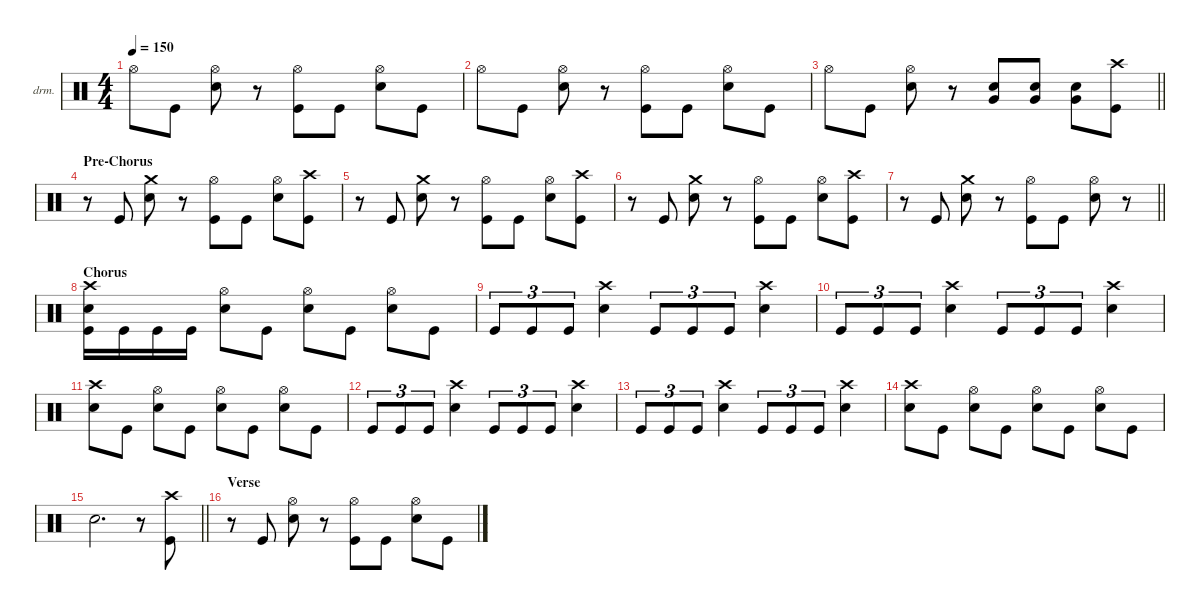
\defaultSystemsLayout 4
\hideDynamics
\bracketExtendMode nobrackets
\firstSystemTrackNameOrientation horizontal
\otherSystemsTrackNameOrientation horizontal
\track ("Stix Zadinia" "drm.") {instrument percussion}
\staff {score}
\articulation defaults
\ts (4 4)
\tempo 150
\clef neutral
\ks c "Hi-Hat (open)".8{dy f} "Kick (hit)".8
("Hi-Hat (open)" "Snare (hit) 2").8 r.8 ("Hi-Hat (open)" "Kick (hit)").8 "Kick (hit)".8 ("Hi-Hat (open)" "Snare (hit) 2").8 "Kick (hit)".8 |
"Hi-Hat (open)".8 "Kick (hit)".8 ("Hi-Hat (open)" "Snare (hit) 2").8 r.8 ("Hi-Hat (open)" "Kick (hit)").8 "Kick (hit)".8 ("Hi-Hat (open)" "Snare (hit) 2").8 "Kick (hit)".8 |
\barLineRight lightlight "Hi-Hat (open)".8 "Kick (hit)".8
("Hi-Hat (open)" "Snare (hit) 2").8 r.8 ("Very Low Tom (hit)" "Snare (hit) 2").8 ("Very Low Tom (hit)" "Snare (hit) 2").8 ("Very Low Tom (hit)" "Snare (hit) 2").8 ("Crash high (hit)" "Kick (hit)").8 |
\section ("" "Pre-Chorus")
r.8 "Kick (hit)".8 ("Crash medium (hit)" "Snare (hit) 2").8 r.8 ("Hi-Hat (open)" "Kick (hit)").8 "Kick (hit)".8 ("Hi-Hat (open)" "Snare (hit) 2").8 ("Crash high (hit)" "Kick (hit)").8 |
r.8 "Kick (hit)".8 ("Crash medium (hit)" "Snare (hit) 2").8 r.8 ("Hi-Hat (open)" "Kick (hit)").8 "Kick (hit)".8 ("Hi-Hat (open)" "Snare (hit) 2").8 ("Crash high (hit)" "Kick (hit)").8 |
r.8 "Kick (hit)".8 ("Crash medium (hit)" "Snare (hit) 2").8 r.8 ("Hi-Hat (open)" "Kick (hit)").8 "Kick (hit)".8 ("Hi-Hat (open)" "Snare (hit) 2").8 ("Crash high (hit)" "Kick (hit)").8 |
\barLineRight lightlight
r.8 "Kick (hit)".8 ("Crash medium (hit)" "Snare (hit) 2").8 r.8 ("Hi-Hat (open)" "Kick (hit)").8 "Kick (hit)".8 ("Hi-Hat (open)" "Snare (hit) 2").8 r.8 |
\section ("" "Chorus")
("Crash high (hit)" "Snare (hit) 2" "Kick (hit)").16 "Kick (hit)".16 "Kick (hit)".16 "Kick (hit)".16 ("Hi-Hat (open)" "Snare (hit) 2").8 "Kick (hit)".8 ("Hi-Hat (open)" "Snare (hit) 2").8 "Kick (hit)".8 ("Hi-Hat (open)" "Snare (hit) 2").8 "Kick (hit)".8 |
"Kick (hit)".8{tu (3 2)} "Kick (hit)".8{tu (3 2)} "Kick (hit)".8{tu (3 2)} ("Crash high (hit)" "Snare (hit) 2").4 "Kick (hit)".8{tu (3 2)} "Kick (hit)".8{tu (3 2)} "Kick (hit)".8{tu (3 2)} ("Crash high (hit)" "Snare (hit) 2").4 |
"Kick (hit)".8{tu (3 2)} "Kick (hit)".8{tu (3 2)} "Kick (hit)".8{tu (3 2)} ("Crash high (hit)" "Snare (hit) 2").4 "Kick (hit)".8{tu (3 2)} "Kick (hit)".8{tu (3 2)} "Kick (hit)".8{tu (3 2)} ("Crash high (hit)" "Snare (hit) 2").4 |
("Crash high (hit)" "Snare (hit) 2").8 "Kick (hit)".8 ("Hi-Hat (open)" "Snare (hit) 2").8 "Kick (hit)".8 ("Hi-Hat (open)" "Snare (hit) 2").8 "Kick (hit)".8 ("Hi-Hat (open)" "Snare (hit) 2").8 "Kick (hit)".8 |
"Kick (hit)".8{tu (3 2)} "Kick (hit)".8{tu (3 2)} "Kick (hit)".8{tu (3 2)} ("Crash high (hit)" "Snare (hit) 2").4 "Kick (hit)".8{tu (3 2)} "Kick (hit)".8{tu (3 2)} "Kick (hit)".8{tu (3 2)} ("Crash high (hit)" "Snare (hit) 2").4 |
"Kick (hit)".8{tu (3 2)} "Kick (hit)".8{tu (3 2)} "Kick (hit)".8{tu (3 2)} ("Crash high (hit)" "Snare (hit) 2").4 "Kick (hit)".8{tu (3 2)} "Kick (hit)".8{tu (3 2)} "Kick (hit)".8{tu (3 2)} ("Crash high (hit)" "Snare (hit) 2").4 |
("Crash high (hit)" "Snare (hit) 2").8 "Kick (hit)".8 ("Hi-Hat (open)" "Snare (hit) 2").8 "Kick (hit)".8 ("Hi-Hat (open)" "Snare (hit) 2").8 "Kick (hit)".8 ("Hi-Hat (open)" "Snare (hit) 2").8 "Kick (hit)".8 |
\barLineRight lightlight "Snare (hit) 2".2{d}
r.8 ("Crash high (hit)" "Kick (hit)").8 |
\section ("" "Verse")
r.8 "Kick (hit)".8 ("Hi-Hat (open)" "Snare (hit) 2").8 r.8 ("Hi-Hat (open)" "Kick (hit)").8 "Kick (hit)".8 ("Hi-Hat (open)" "Snare (hit) 2").8 "Kick (hit)".8
